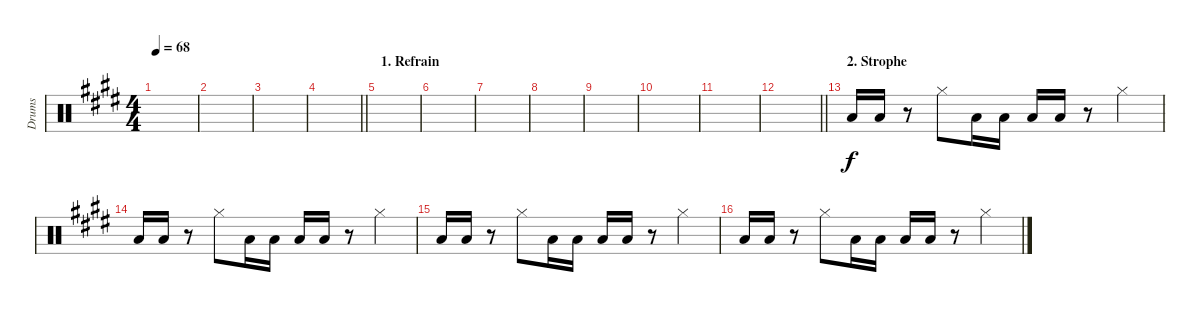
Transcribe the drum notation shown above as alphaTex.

\track ("Drums" "Drums") {instrument percussion}
\staff {score}
\articulation defaults
\ts (4 4)
\tempo 68
\clef neutral
\ks e
|
|
|
\barLineRight lightlight
|
\section ("" "1. Refrain")
|
|
|
|
|
|
|
\barLineRight lightlight
|
\section ("" "2. Strophe")
"Low Floor Tom (hit)".16 "Low Floor Tom (hit)".16 r.8 "Hi-Hat (closed)".8 "Low Floor Tom (hit)".16 "Low Floor Tom (hit)".16 "Low Floor Tom (hit)".16 "Low Floor Tom (hit)".16 r.8 "Hi-Hat (closed)".4 |
"Low Floor Tom (hit)".16 "Low Floor Tom (hit)".16 r.8 "Hi-Hat (closed)".8 "Low Floor Tom (hit)".16 "Low Floor Tom (hit)".16 "Low Floor Tom (hit)".16 "Low Floor Tom (hit)".16 r.8 "Hi-Hat (closed)".4 |
"Low Floor Tom (hit)".16 "Low Floor Tom (hit)".16 r.8 "Hi-Hat (closed)".8 "Low Floor Tom (hit)".16 "Low Floor Tom (hit)".16 "Low Floor Tom (hit)".16 "Low Floor Tom (hit)".16 r.8 "Hi-Hat (closed)".4 |
"Low Floor Tom (hit)".16 "Low Floor Tom (hit)".16 r.8 "Hi-Hat (closed)".8 "Low Floor Tom (hit)".16 "Low Floor Tom (hit)".16 "Low Floor Tom (hit)".16 "Low Floor Tom (hit)".16 r.8 "Hi-Hat (closed)".4
